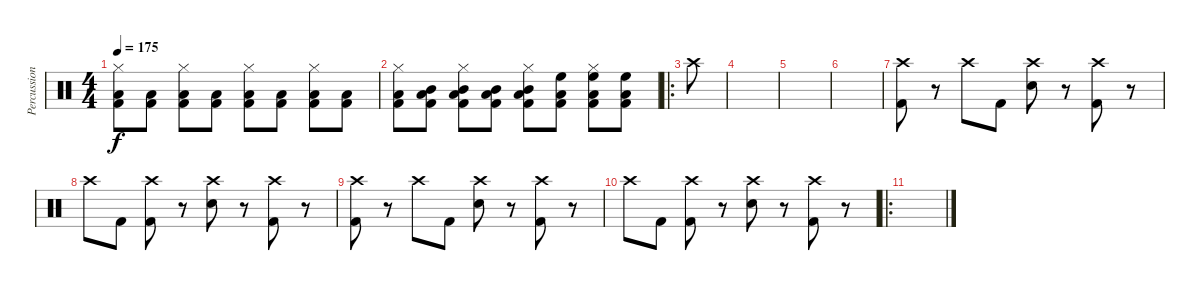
\track ("Percussion" "Percussion") {instrument percussion}
\staff {score}
\articulation defaults
\ts (4 4)
\tempo 175
\clef neutral
\ks c
("Hi-Hat (closed)" "Low Tom (hit)" "Kick (hit) 2").8{dy f} ("Low Tom (hit)" "Kick (hit) 2").8 ("Hi-Hat (closed)" "Low Tom (hit)" "Kick (hit) 2").8 ("Low Tom (hit)" "Kick (hit) 2").8 ("Hi-Hat (closed)" "Low Tom (hit)" "Kick (hit) 2").8 ("Low Tom (hit)" "Kick (hit) 2").8 ("Hi-Hat (closed)" "Low Tom (hit)" "Kick (hit) 2").8 ("Low Tom (hit)" "Kick (hit) 2").8 |
("Hi-Hat (closed)" "Low Tom (hit)" "Kick (hit) 2").8 ("Mid Tom (hit)" "Low Tom (hit)" "Kick (hit) 2").8 ("Hi-Hat (closed)" "Mid Tom (hit)" "Low Tom (hit)" "Kick (hit) 2").8 ("Mid Tom (hit)" "Low Tom (hit)" "Kick (hit) 2").8 ("Hi-Hat (closed)" "Mid Tom (hit)" "Low Tom (hit)" "Kick (hit) 2").8 ("High Floor Tom (hit)" "Low Tom (hit)" "Kick (hit) 2").8 ("Hi-Hat (closed)" "High Floor Tom (hit)" "Low Tom (hit)" "Kick (hit) 2").8 ("High Floor Tom (hit)" "Low Tom (hit)" "Kick (hit) 2").8 |
\ro "Crash high (hit)".8
|
|
|
|
("Crash high (hit)" "Kick (hit) 2").8 r.8 "Crash high (hit)".8 "Kick (hit) 2".8 ("Crash high (hit)" "Snare (hit) 2").8 r.8 ("Crash high (hit)" "Kick (hit) 2").8 r.8 |
"Crash high (hit)".8 "Kick (hit) 2".8 ("Crash high (hit)" "Kick (hit) 2").8 r.8 ("Crash high (hit)" "Snare (hit) 2").8 r.8 ("Crash high (hit)" "Kick (hit) 2").8 r.8 |
("Crash high (hit)" "Kick (hit) 2").8 r.8 "Crash high (hit)".8 "Kick (hit) 2".8 ("Crash high (hit)" "Snare (hit) 2").8 r.8 ("Crash high (hit)" "Kick (hit) 2").8 r.8 |
"Crash high (hit)".8 "Kick (hit) 2".8 ("Crash high (hit)" "Kick (hit) 2").8 r.8 ("Crash high (hit)" "Snare (hit) 2").8 r.8 ("Crash high (hit)" "Kick (hit) 2").8 r.8 |
\ro
